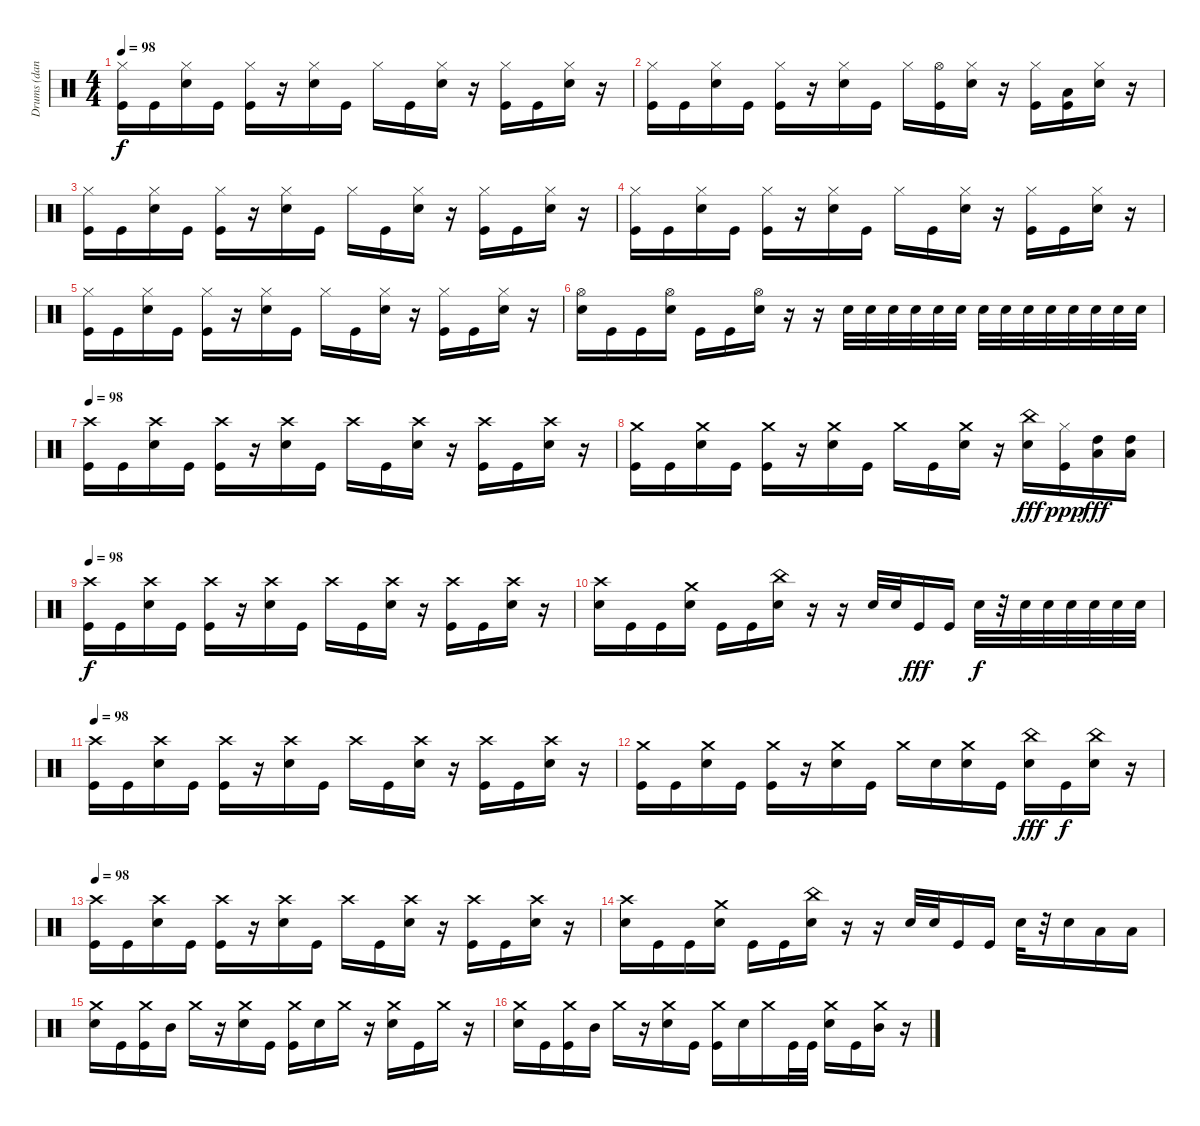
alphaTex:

\track ("Drums (dan)" "Drums (dan") {instrument percussion}
\staff {score}
\articulation defaults
\ts (4 4)
\tempo 98
\clef neutral
\ks c
("Hi-Hat (closed)" "Kick (hit)").16{dy f} "Kick (hit)".16 ("Hi-Hat (closed)" "Snare (hit) 2").16 "Kick (hit)".16 ("Hi-Hat (closed)" "Kick (hit)").16 r.16 ("Hi-Hat (closed)" "Snare (hit) 2").16 "Kick (hit)".16 "Hi-Hat (closed)".16 "Kick (hit)".16 ("Hi-Hat (closed)" "Snare (hit) 2").16 r.16 ("Hi-Hat (closed)" "Kick (hit)").16 "Kick (hit)".16 ("Hi-Hat (closed)" "Snare (hit) 2").16 r.16 |
("Hi-Hat (closed)" "Kick (hit)").16 "Kick (hit)".16 ("Hi-Hat (closed)" "Snare (hit) 2").16 "Kick (hit)".16 ("Hi-Hat (closed)" "Kick (hit)").16 r.16 ("Hi-Hat (closed)" "Snare (hit) 2").16 "Kick (hit)".16 "Hi-Hat (closed)".16 ("Hi-Hat (open)" "Kick (hit)").16 ("Hi-Hat (closed)" "Snare (hit) 2").16 r.16 ("Hi-Hat (closed)" "Kick (hit)").16 ("Low Tom (hit)" "Kick (hit)").16 ("Hi-Hat (closed)" "Snare (hit) 2").16 r.16 |
("Hi-Hat (closed)" "Kick (hit)").16 "Kick (hit)".16 ("Hi-Hat (closed)" "Snare (hit) 2").16 "Kick (hit)".16 ("Hi-Hat (closed)" "Kick (hit)").16 r.16 ("Hi-Hat (closed)" "Snare (hit) 2").16 "Kick (hit)".16 "Hi-Hat (closed)".16 "Kick (hit)".16 ("Hi-Hat (closed)" "Snare (hit) 2").16 r.16 ("Hi-Hat (closed)" "Kick (hit)").16 "Kick (hit)".16 ("Hi-Hat (closed)" "Snare (hit) 2").16 r.16 |
("Hi-Hat (closed)" "Kick (hit)").16 "Kick (hit)".16 ("Hi-Hat (closed)" "Snare (hit) 2").16 "Kick (hit)".16 ("Hi-Hat (closed)" "Kick (hit)").16 r.16 ("Hi-Hat (closed)" "Snare (hit) 2").16 "Kick (hit)".16 "Hi-Hat (closed)".16 "Kick (hit)".16 ("Hi-Hat (closed)" "Snare (hit) 2").16 r.16 ("Hi-Hat (closed)" "Kick (hit)").16 "Kick (hit)".16 ("Hi-Hat (closed)" "Snare (hit) 2").16 r.16 |
("Hi-Hat (closed)" "Kick (hit)").16 "Kick (hit)".16 ("Hi-Hat (closed)" "Snare (hit) 2").16 "Kick (hit)".16 ("Hi-Hat (closed)" "Kick (hit)").16 r.16 ("Hi-Hat (closed)" "Snare (hit) 2").16 "Kick (hit)".16 "Hi-Hat (closed)".16 "Kick (hit)".16 ("Hi-Hat (closed)" "Snare (hit) 2").16 r.16 ("Hi-Hat (closed)" "Kick (hit)").16 "Kick (hit)".16 ("Hi-Hat (closed)" "Snare (hit) 2").16 r.16 |
("Hi-Hat (open)" "Snare (hit) 2").16 "Kick (hit)".16 "Kick (hit)".16 ("Hi-Hat (open)" "Snare (hit) 2").16 "Kick (hit)".16 "Kick (hit)".16 ("Hi-Hat (open)" "Snare (hit) 2").16 r.16 r.16 "Snare (hit) 2".32 "Snare (hit) 2".32 "Snare (hit) 2".32 "Snare (hit) 2".32 "Snare (hit) 2".32 "Snare (hit) 2".32 "Snare (hit) 2".32 "Snare (hit) 2".32 "Snare (hit) 2".32 "Snare (hit) 2".32 "Snare (hit) 2".32 "Snare (hit) 2".32 "Snare (hit) 2".32 "Snare (hit) 2".32 |
\tempo 98
("Crash high (hit)" "Kick (hit)").16 "Kick (hit)".16 ("Crash high (hit)" "Snare (hit) 2").16 "Kick (hit)".16 ("Crash high (hit)" "Kick (hit)").16 r.16 ("Crash high (hit)" "Snare (hit) 2").16 "Kick (hit)".16 "Crash high (hit)".16 "Kick (hit)".16 ("Crash high (hit)" "Snare (hit) 2").16 r.16 ("Crash high (hit)" "Kick (hit)").16 "Kick (hit)".16 ("Crash high (hit)" "Snare (hit) 2").16 r.16 |
("Crash medium (hit)" "Kick (hit)").16 "Kick (hit)".16 ("Crash medium (hit)" "Snare (hit) 2").16 "Kick (hit)".16 ("Crash medium (hit)" "Kick (hit)").16 r.16 ("Crash medium (hit)" "Snare (hit) 2").16 "Kick (hit)".16 "Crash medium (hit)".16 "Kick (hit)".16 ("Crash medium (hit)" "Snare (hit) 2").16 r.16 ("China (hit)" "Snare (hit) 2").16{dy fff} ("Hi-Hat (closed)" "Kick (hit)").16{dy ppp} ("High Tom (hit)" "Low Floor Tom (hit)").16{dy fff} ("High Tom (hit)" "Low Floor Tom (hit)").16 |
\tempo 98
("Crash high (hit)" "Kick (hit)").16{dy f} "Kick (hit)".16 ("Crash high (hit)" "Snare (hit) 2").16 "Kick (hit)".16 ("Crash high (hit)" "Kick (hit)").16 r.16 ("Crash high (hit)" "Snare (hit) 2").16 "Kick (hit)".16 "Crash high (hit)".16 "Kick (hit)".16 ("Crash high (hit)" "Snare (hit) 2").16 r.16 ("Crash high (hit)" "Kick (hit)").16 "Kick (hit)".16 ("Crash high (hit)" "Snare (hit) 2").16 r.16 |
("Crash high (hit)" "Snare (hit) 2").16 "Kick (hit)".16 "Kick (hit)".16 ("Crash medium (hit)" "Snare (hit) 2").16 "Kick (hit)".16 "Kick (hit)".16 ("China (hit)" "Snare (hit) 2").16 r.16 r.16 "Snare (hit) 2".32 "Snare (hit) 2".32 "Kick (hit)".16{dy fff} "Kick (hit)".16 "Snare (hit) 2".32{dy f} r.32 "Snare (hit) 2".32 "Snare (hit) 2".32 "Snare (hit) 2".32 "Snare (hit) 2".32 "Snare (hit) 2".32 "Snare (hit) 2".32 |
\tempo 98
("Crash high (hit)" "Kick (hit)").16 "Kick (hit)".16 ("Crash high (hit)" "Snare (hit) 2").16 "Kick (hit)".16 ("Crash high (hit)" "Kick (hit)").16 r.16 ("Crash high (hit)" "Snare (hit) 2").16 "Kick (hit)".16 "Crash high (hit)".16 "Kick (hit)".16 ("Crash high (hit)" "Snare (hit) 2").16 r.16 ("Crash high (hit)" "Kick (hit)").16 "Kick (hit)".16 ("Crash high (hit)" "Snare (hit) 2").16 r.16 |
("Crash medium (hit)" "Kick (hit)").16 "Kick (hit)".16 ("Crash medium (hit)" "Snare (hit) 2").16 "Kick (hit)".16 ("Crash medium (hit)" "Kick (hit)").16 r.16 ("Crash medium (hit)" "Snare (hit) 2").16 "Kick (hit)".16 "Crash medium (hit)".16 "Snare (hit) 2".16 ("Crash medium (hit)" "Snare (hit) 2").16 "Kick (hit)".16 ("China (hit)" "Snare (hit) 2").16{dy fff} "Kick (hit)".16{dy f} ("China (hit)" "Snare (hit) 2").16 r.16 |
\tempo 98
("Crash high (hit)" "Kick (hit)").16 "Kick (hit)".16 ("Crash high (hit)" "Snare (hit) 2").16 "Kick (hit)".16 ("Crash high (hit)" "Kick (hit)").16 r.16 ("Crash high (hit)" "Snare (hit) 2").16 "Kick (hit)".16 "Crash high (hit)".16 "Kick (hit)".16 ("Crash high (hit)" "Snare (hit) 2").16 r.16 ("Crash high (hit)" "Kick (hit)").16 "Kick (hit)".16 ("Crash high (hit)" "Snare (hit) 2").16 r.16 |
("Crash high (hit)" "Snare (hit) 2").16 "Kick (hit)".16 "Kick (hit)".16 ("Crash medium (hit)" "Snare (hit) 2").16 "Kick (hit)".16 "Kick (hit)".16 ("China (hit)" "Snare (hit) 2").16 r.16 r.16 "Snare (hit) 2".32 "Snare (hit) 2".32 "Kick (hit)".16 "Kick (hit)".16 "Snare (hit) 2".32 r.32 "Snare (hit) 2".16 "Low Tom (hit)".16 "Low Floor Tom (hit)".16 |
("Crash medium (hit)" "Snare (hit) 2").16 "Kick (hit)".16 ("Crash medium (hit)" "Kick (hit)").16 "Mid Tom (hit)".16 "Crash medium (hit)".16 r.16 ("Crash medium (hit)" "Snare (hit) 2").16 "Kick (hit)".16 ("Crash medium (hit)" "Kick (hit)").16 "Snare (hit) 2".16 "Crash medium (hit)".16 r.16 ("Crash medium (hit)" "Snare (hit) 2").16 "Kick (hit)".16 "Crash medium (hit)".16 r.16 |
("Crash medium (hit)" "Snare (hit) 2").16 "Kick (hit)".16 ("Crash medium (hit)" "Kick (hit)").16 "Mid Tom (hit)".16 "Crash medium (hit)".16 r.16 ("Crash medium (hit)" "Snare (hit) 2").16 "Kick (hit)".16 ("Crash medium (hit)" "Kick (hit)").16 "Snare (hit) 2".16 "Crash medium (hit)".16 "Kick (hit)".32 "Kick (hit)".32 ("Crash medium (hit)" "Snare (hit) 2").16 "Kick (hit)".16 ("Crash medium (hit)" "Mid Tom (hit)").16 r.16
